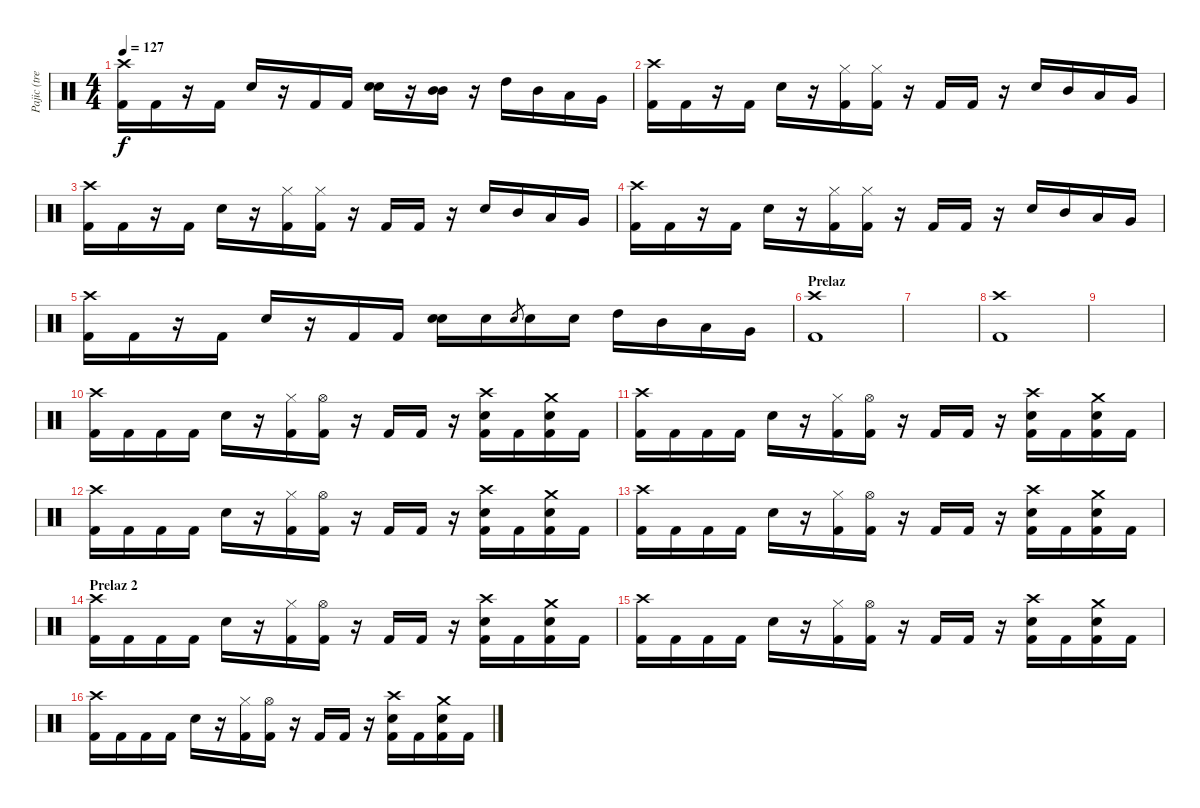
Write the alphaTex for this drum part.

\track ("Pajic (trebao)" "Pajic (tre") {instrument percussion}
\staff {score}
\articulation defaults
\ts (4 4)
\tempo 127
\clef neutral
\ks c
("Crash high (hit)" "Kick (hit) 2").16{dy f} "Kick (hit) 2".16 r.16 "Kick (hit) 2".16 "Electric Snare (hit)".16 r.16 "Kick (hit) 2".16 "Kick (hit) 2".16 ("Electric Snare (hit)" "Electric Snare (hit)").16{bd 60} r.16 ("Mid Tom (hit)" "Mid Tom (hit)").16{bd 60} r.16 "High Tom (hit)".16 "Mid Tom (hit)".16 "Low Tom (hit)".16 "Very Low Tom (hit)".16 |
("Crash high (hit)" "Kick (hit) 2").16 "Kick (hit) 2".16 r.16 "Kick (hit) 2".16 "Electric Snare (hit)".16 r.16 ("Hi-Hat (closed)" "Kick (hit) 2").16 ("Hi-Hat (closed)" "Kick (hit) 2").16 r.16 "Kick (hit) 2".16 "Kick (hit) 2".16 r.16 "Electric Snare (hit)".16 "Mid Tom (hit)".16 "Low Tom (hit)".16 "Very Low Tom (hit)".16 |
("Crash high (hit)" "Kick (hit) 2").16 "Kick (hit) 2".16 r.16 "Kick (hit) 2".16 "Electric Snare (hit)".16 r.16 ("Hi-Hat (closed)" "Kick (hit) 2").16 ("Hi-Hat (closed)" "Kick (hit) 2").16 r.16 "Kick (hit) 2".16 "Kick (hit) 2".16 r.16 "Electric Snare (hit)".16 "Mid Tom (hit)".16 "Low Tom (hit)".16 "Very Low Tom (hit)".16 |
("Crash high (hit)" "Kick (hit) 2").16 "Kick (hit) 2".16 r.16 "Kick (hit) 2".16 "Electric Snare (hit)".16 r.16 ("Hi-Hat (closed)" "Kick (hit) 2").16 ("Hi-Hat (closed)" "Kick (hit) 2").16 r.16 "Kick (hit) 2".16 "Kick (hit) 2".16 r.16 "Electric Snare (hit)".16 "Mid Tom (hit)".16 "Low Tom (hit)".16 "Very Low Tom (hit)".16 |
("Crash high (hit)" "Kick (hit) 2").16 "Kick (hit) 2".16 r.16 "Kick (hit) 2".16 "Electric Snare (hit)".16 r.16 "Kick (hit) 2".16 "Kick (hit) 2".16 ("Electric Snare (hit)" "Electric Snare (hit)").16{bd 120} "Electric Snare (hit)".16 "Electric Snare (hit)".8{gr} "Electric Snare (hit)".16 "Electric Snare (hit)".16 "High Tom (hit)".16 "Mid Tom (hit)".16 "Low Tom (hit)".16 "Very Low Tom (hit)".16 |
\section ("" "Prelaz")
("Crash high (hit)" "Kick (hit) 2").1 |
|
("Crash high (hit)" "Kick (hit) 2").1 |
|
("Crash high (hit)" "Kick (hit) 2").16 "Kick (hit) 2".16 "Kick (hit) 2".16 "Kick (hit) 2".16 "Electric Snare (hit)".16 r.16 ("Hi-Hat (closed)" "Kick (hit) 2").16 ("Hi-Hat (open)" "Kick (hit) 2").16 r.16 "Kick (hit) 2".16 "Kick (hit) 2".16 r.16 ("Crash high (hit)" "Kick (hit) 2" "Electric Snare (hit)").16 "Kick (hit) 2".16 ("Crash medium (hit)" "Kick (hit) 2" "Electric Snare (hit)").16 "Kick (hit) 2".16 |
("Crash high (hit)" "Kick (hit) 2").16 "Kick (hit) 2".16 "Kick (hit) 2".16 "Kick (hit) 2".16 "Electric Snare (hit)".16 r.16 ("Hi-Hat (closed)" "Kick (hit) 2").16 ("Hi-Hat (open)" "Kick (hit) 2").16 r.16 "Kick (hit) 2".16 "Kick (hit) 2".16 r.16 ("Crash high (hit)" "Kick (hit) 2" "Electric Snare (hit)").16 "Kick (hit) 2".16 ("Crash medium (hit)" "Kick (hit) 2" "Electric Snare (hit)").16 "Kick (hit) 2".16 |
("Crash high (hit)" "Kick (hit) 2").16 "Kick (hit) 2".16 "Kick (hit) 2".16 "Kick (hit) 2".16 "Electric Snare (hit)".16 r.16 ("Hi-Hat (closed)" "Kick (hit) 2").16 ("Hi-Hat (open)" "Kick (hit) 2").16 r.16 "Kick (hit) 2".16 "Kick (hit) 2".16 r.16 ("Crash high (hit)" "Kick (hit) 2" "Electric Snare (hit)").16 "Kick (hit) 2".16 ("Crash medium (hit)" "Kick (hit) 2" "Electric Snare (hit)").16 "Kick (hit) 2".16 |
("Crash high (hit)" "Kick (hit) 2").16 "Kick (hit) 2".16 "Kick (hit) 2".16 "Kick (hit) 2".16 "Electric Snare (hit)".16 r.16 ("Hi-Hat (closed)" "Kick (hit) 2").16 ("Hi-Hat (open)" "Kick (hit) 2").16 r.16 "Kick (hit) 2".16 "Kick (hit) 2".16 r.16 ("Crash high (hit)" "Kick (hit) 2" "Electric Snare (hit)").16 "Kick (hit) 2".16 ("Crash medium (hit)" "Kick (hit) 2" "Electric Snare (hit)").16 "Kick (hit) 2".16 |
\section ("" "Prelaz 2")
("Crash high (hit)" "Kick (hit) 2").16 "Kick (hit) 2".16 "Kick (hit) 2".16 "Kick (hit) 2".16 "Electric Snare (hit)".16 r.16 ("Hi-Hat (closed)" "Kick (hit) 2").16 ("Hi-Hat (open)" "Kick (hit) 2").16 r.16 "Kick (hit) 2".16 "Kick (hit) 2".16 r.16 ("Crash high (hit)" "Kick (hit) 2" "Electric Snare (hit)").16 "Kick (hit) 2".16 ("Crash medium (hit)" "Kick (hit) 2" "Electric Snare (hit)").16 "Kick (hit) 2".16 |
("Crash high (hit)" "Kick (hit) 2").16 "Kick (hit) 2".16 "Kick (hit) 2".16 "Kick (hit) 2".16 "Electric Snare (hit)".16 r.16 ("Hi-Hat (closed)" "Kick (hit) 2").16 ("Hi-Hat (open)" "Kick (hit) 2").16 r.16 "Kick (hit) 2".16 "Kick (hit) 2".16 r.16 ("Crash high (hit)" "Kick (hit) 2" "Electric Snare (hit)").16 "Kick (hit) 2".16 ("Crash medium (hit)" "Kick (hit) 2" "Electric Snare (hit)").16 "Kick (hit) 2".16 |
("Crash high (hit)" "Kick (hit) 2").16 "Kick (hit) 2".16 "Kick (hit) 2".16 "Kick (hit) 2".16 "Electric Snare (hit)".16 r.16 ("Hi-Hat (closed)" "Kick (hit) 2").16 ("Hi-Hat (open)" "Kick (hit) 2").16 r.16 "Kick (hit) 2".16 "Kick (hit) 2".16 r.16 ("Crash high (hit)" "Kick (hit) 2" "Electric Snare (hit)").16 "Kick (hit) 2".16 ("Crash medium (hit)" "Kick (hit) 2" "Electric Snare (hit)").16 "Kick (hit) 2".16
